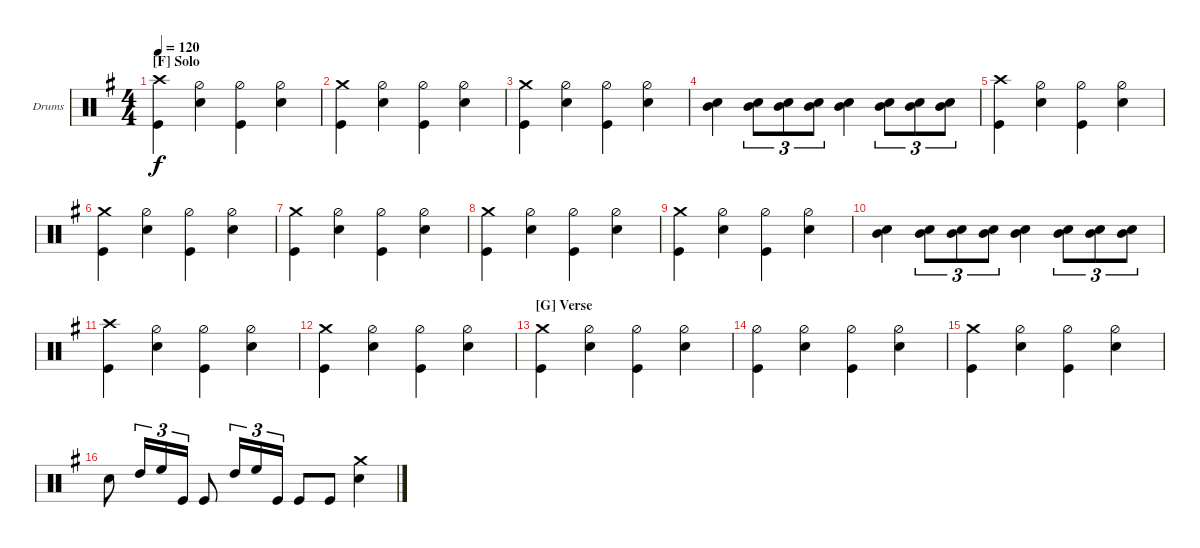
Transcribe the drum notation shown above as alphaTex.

\defaultSystemsLayout 4
\bracketExtendMode groupsimilarinstruments
\firstSystemTrackNameOrientation horizontal
\otherSystemsTrackNameOrientation horizontal
\track ("Drumkit" "Drums") {multiBarRest instrument percussion}
\staff {score}
\articulation defaults
\ts (4 4)
\section ("F" "Solo")
\tempo 120
\clef neutral
\ks g
("Crash high (hit)" "Kick (hit)").4{dy f} ("Hi-Hat (half)" "Snare (hit) 2").4 ("Hi-Hat (half)" "Kick (hit)").4 ("Hi-Hat (half)" "Snare (hit) 2").4 |
("Crash medium (hit)" "Kick (hit)").4 ("Hi-Hat (half)" "Snare (hit) 2").4 ("Hi-Hat (half)" "Kick (hit)").4 ("Hi-Hat (half)" "Snare (hit) 2").4 |
("Crash medium (hit)" "Kick (hit)").4 ("Hi-Hat (half)" "Snare (hit) 2").4 ("Hi-Hat (half)" "Kick (hit)").4 ("Hi-Hat (half)" "Snare (hit) 2").4 |
("Snare (hit) 2" "Mid Tom (hit)").4 ("Snare (hit) 2" "Mid Tom (hit)").8{tu (3 2)} ("Snare (hit) 2" "Mid Tom (hit)").8{tu (3 2)} ("Snare (hit) 2" "Mid Tom (hit)").8{tu (3 2)} ("Snare (hit) 2" "Mid Tom (hit)").4 ("Snare (hit) 2" "Mid Tom (hit)").8{tu (3 2)} ("Snare (hit) 2" "Mid Tom (hit)").8{tu (3 2)} ("Snare (hit) 2" "Mid Tom (hit)").8{tu (3 2)} |
("Crash high (hit)" "Kick (hit)").4 ("Hi-Hat (half)" "Snare (hit) 2").4 ("Hi-Hat (half)" "Kick (hit)").4 ("Hi-Hat (half)" "Snare (hit) 2").4 |
("Crash medium (hit)" "Kick (hit)").4 ("Hi-Hat (half)" "Snare (hit) 2").4 ("Hi-Hat (half)" "Kick (hit)").4 ("Hi-Hat (half)" "Snare (hit) 2").4 |
("Crash medium (hit)" "Kick (hit)").4 ("Hi-Hat (half)" "Snare (hit) 2").4 ("Hi-Hat (half)" "Kick (hit)").4 ("Hi-Hat (half)" "Snare (hit) 2").4 |
("Crash medium (hit)" "Kick (hit)").4 ("Hi-Hat (half)" "Snare (hit) 2").4 ("Hi-Hat (half)" "Kick (hit)").4 ("Hi-Hat (half)" "Snare (hit) 2").4 |
("Crash medium (hit)" "Kick (hit)").4 ("Hi-Hat (half)" "Snare (hit) 2").4 ("Hi-Hat (half)" "Kick (hit)").4 ("Hi-Hat (half)" "Snare (hit) 2").4 |
("Snare (hit) 2" "Mid Tom (hit)").4 ("Snare (hit) 2" "Mid Tom (hit)").8{tu (3 2)} ("Snare (hit) 2" "Mid Tom (hit)").8{tu (3 2)} ("Snare (hit) 2" "Mid Tom (hit)").8{tu (3 2)} ("Snare (hit) 2" "Mid Tom (hit)").4 ("Snare (hit) 2" "Mid Tom (hit)").8{tu (3 2)} ("Snare (hit) 2" "Mid Tom (hit)").8{tu (3 2)} ("Snare (hit) 2" "Mid Tom (hit)").8{tu (3 2)} |
("Crash high (hit)" "Kick (hit)").4 ("Hi-Hat (half)" "Snare (hit) 2").4 ("Hi-Hat (half)" "Kick (hit)").4 ("Hi-Hat (half)" "Snare (hit) 2").4 |
("Crash medium (hit)" "Kick (hit)").4 ("Hi-Hat (half)" "Snare (hit) 2").4 ("Hi-Hat (half)" "Kick (hit)").4 ("Hi-Hat (half)" "Snare (hit) 2").4 |
\section ("G" "Verse")
("Crash medium (hit)" "Kick (hit)").4 ("Hi-Hat (half)" "Snare (hit) 2").4 ("Hi-Hat (half)" "Kick (hit)").4 ("Hi-Hat (half)" "Snare (hit) 2").4 |
("Hi-Hat (half)" "Kick (hit)").4 ("Hi-Hat (half)" "Snare (hit) 2").4 ("Hi-Hat (half)" "Kick (hit)").4 ("Hi-Hat (half)" "Snare (hit) 2").4 |
("Crash medium (hit)" "Kick (hit)").4 ("Hi-Hat (half)" "Snare (hit) 2").4 ("Hi-Hat (half)" "Kick (hit)").4 ("Hi-Hat (half)" "Snare (hit) 2").4 |
"Snare (hit) 2".8 "High Tom (hit)".16{tu (3 2)} "High Floor Tom (hit)".16{tu (3 2)} "Kick (hit)".16{tu (3 2)} "Kick (hit)".8 "High Tom (hit)".16{tu (3 2)} "High Floor Tom (hit)".16{tu (3 2)} "Kick (hit)".16{tu (3 2)} "Kick (hit)".8 "Kick (hit)".8 ("Crash medium (hit)" "Snare (hit) 2").4
